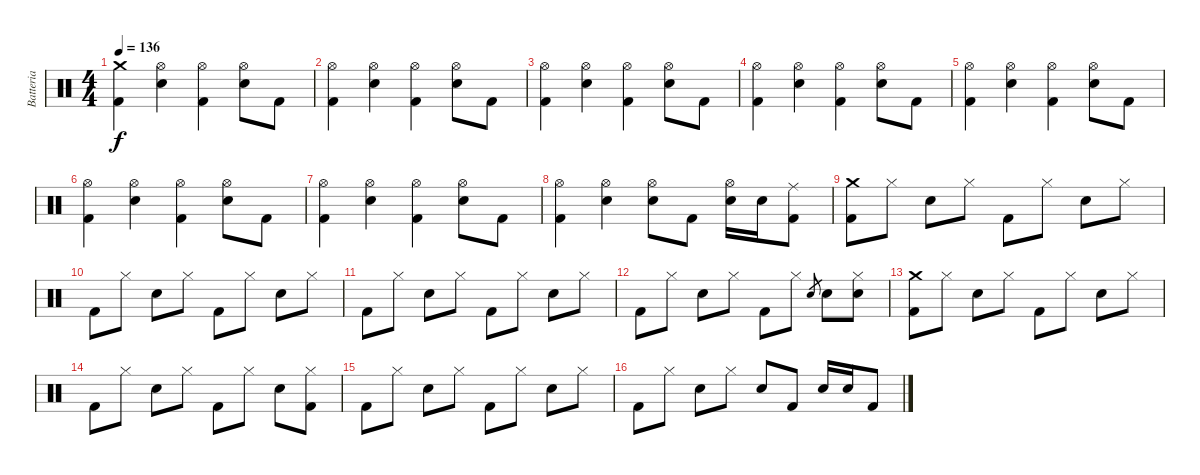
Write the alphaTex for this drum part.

\track ("Batteria" "Batteria") {instrument percussion}
\staff {score}
\articulation defaults
\ts (4 4)
\tempo 136
\clef neutral
\ks c
("Crash medium (hit)" "Kick (hit) 2").4{dy f} ("Hi-Hat (open)" "Electric Snare (hit)").4 ("Hi-Hat (open)" "Kick (hit) 2").4 ("Hi-Hat (open)" "Electric Snare (hit)").8 "Kick (hit) 2".8 |
("Hi-Hat (open)" "Kick (hit) 2").4 ("Hi-Hat (open)" "Electric Snare (hit)").4 ("Hi-Hat (open)" "Kick (hit) 2").4 ("Hi-Hat (open)" "Electric Snare (hit)").8 "Kick (hit) 2".8 |
("Hi-Hat (open)" "Kick (hit) 2").4 ("Hi-Hat (open)" "Electric Snare (hit)").4 ("Hi-Hat (open)" "Kick (hit) 2").4 ("Hi-Hat (open)" "Electric Snare (hit)").8 "Kick (hit) 2".8 |
("Hi-Hat (open)" "Kick (hit) 2").4 ("Hi-Hat (open)" "Electric Snare (hit)").4 ("Hi-Hat (open)" "Kick (hit) 2").4 ("Hi-Hat (open)" "Electric Snare (hit)").8 "Kick (hit) 2".8 |
("Hi-Hat (open)" "Kick (hit) 2").4 ("Hi-Hat (open)" "Electric Snare (hit)").4 ("Hi-Hat (open)" "Kick (hit) 2").4 ("Hi-Hat (open)" "Electric Snare (hit)").8 "Kick (hit) 2".8 |
("Hi-Hat (open)" "Kick (hit) 2").4 ("Hi-Hat (open)" "Electric Snare (hit)").4 ("Hi-Hat (open)" "Kick (hit) 2").4 ("Hi-Hat (open)" "Electric Snare (hit)").8 "Kick (hit) 2".8 |
("Hi-Hat (open)" "Kick (hit) 2").4 ("Hi-Hat (open)" "Electric Snare (hit)").4 ("Hi-Hat (open)" "Kick (hit) 2").4 ("Hi-Hat (open)" "Electric Snare (hit)").8 "Kick (hit) 2".8 |
("Hi-Hat (open)" "Kick (hit) 2").4 ("Hi-Hat (open)" "Electric Snare (hit)").4 ("Hi-Hat (open)" "Electric Snare (hit)").8 "Kick (hit) 2".8 ("Hi-Hat (open)" "Electric Snare (hit)").16 "Electric Snare (hit)".16 ("Ride (middle)" "Kick (hit) 2").8 |
("Crash medium (hit)" "Kick (hit) 2").8 "Hi-Hat (closed)".8 "Electric Snare (hit)".8 "Hi-Hat (closed)".8 "Kick (hit) 2".8 "Hi-Hat (closed)".8 "Electric Snare (hit)".8 "Hi-Hat (closed)".8 |
"Kick (hit) 2".8 "Hi-Hat (closed)".8 "Electric Snare (hit)".8 "Hi-Hat (closed)".8 "Kick (hit) 2".8 "Hi-Hat (closed)".8 "Electric Snare (hit)".8 "Hi-Hat (closed)".8 |
"Kick (hit) 2".8 "Hi-Hat (closed)".8 "Electric Snare (hit)".8 "Hi-Hat (closed)".8 "Kick (hit) 2".8 "Hi-Hat (closed)".8 "Electric Snare (hit)".8 "Hi-Hat (closed)".8 |
"Kick (hit) 2".8 "Hi-Hat (closed)".8 "Electric Snare (hit)".8 "Hi-Hat (closed)".8 "Kick (hit) 2".8 "Hi-Hat (closed)".8 "Electric Snare (hit)".8{gr} "Electric Snare (hit)".8 ("Electric Snare (hit)" "Hi-Hat (closed)").8 |
("Crash medium (hit)" "Kick (hit) 2").8 "Hi-Hat (closed)".8 "Electric Snare (hit)".8 "Hi-Hat (closed)".8 "Kick (hit) 2".8 "Hi-Hat (closed)".8 "Electric Snare (hit)".8 "Hi-Hat (closed)".8 |
"Kick (hit) 2".8 "Hi-Hat (closed)".8 "Electric Snare (hit)".8 "Hi-Hat (closed)".8 "Kick (hit) 2".8 "Hi-Hat (closed)".8 "Electric Snare (hit)".8 ("Kick (hit) 2" "Hi-Hat (closed)").8 |
"Kick (hit) 2".8 "Hi-Hat (closed)".8 "Electric Snare (hit)".8 "Hi-Hat (closed)".8 "Kick (hit) 2".8 "Hi-Hat (closed)".8 "Electric Snare (hit)".8 "Hi-Hat (closed)".8 |
"Kick (hit) 2".8 "Hi-Hat (closed)".8 "Electric Snare (hit)".8 "Hi-Hat (closed)".8 "Electric Snare (hit)".8 "Kick (hit) 2".8 "Electric Snare (hit)".16 "Electric Snare (hit)".16 "Kick (hit) 2".8
